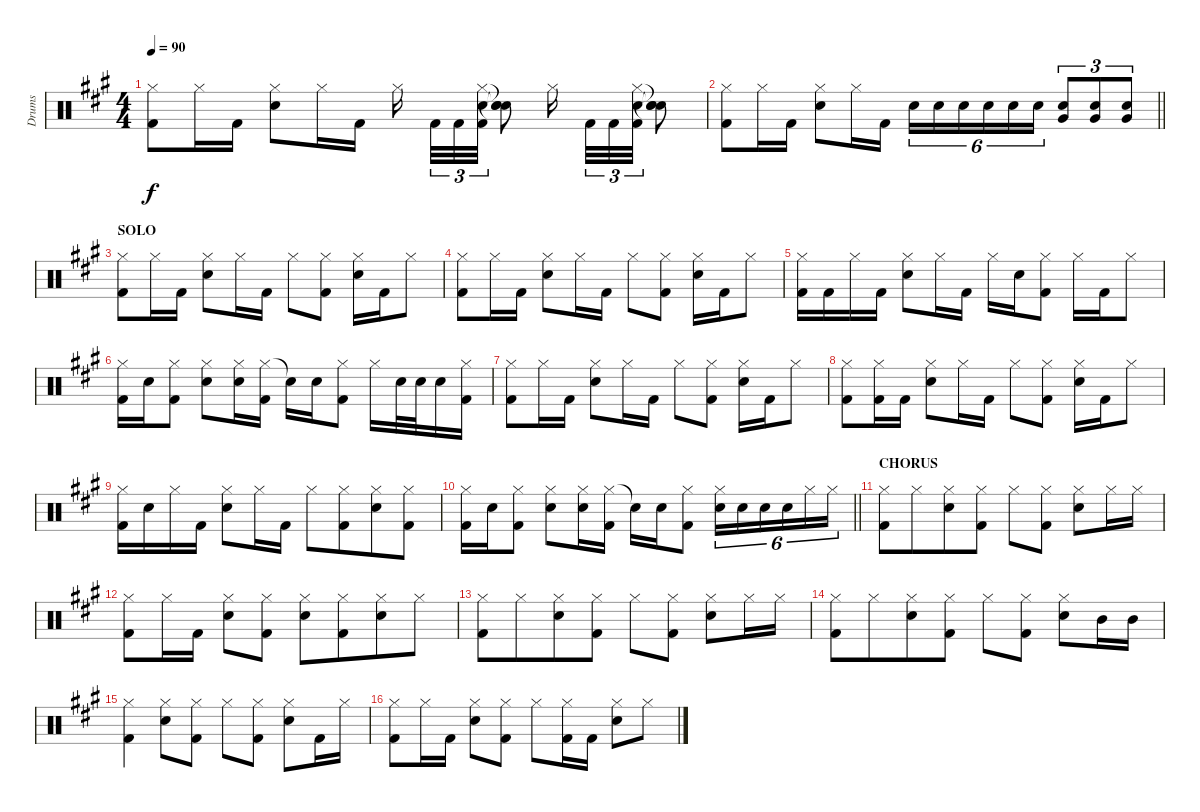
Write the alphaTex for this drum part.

\track ("Drums" "Drums") {instrument percussion}
\staff {score}
\articulation defaults
\ts (4 4)
\tempo 90
\clef neutral
\ks f#minor
("Hi-Hat (closed)" "Kick (hit) 2").8{dy f} "Hi-Hat (closed)".16 "Kick (hit) 2".16{beam split} ("Hi-Hat (closed)" "Electric Snare (hit)").8 "Hi-Hat (closed)".16 "Kick (hit) 2".16 "Hi-Hat (closed)".16{beam splitsecondary} "Kick (hit) 2".32{tu (3 2)} "Kick (hit) 2".32{tu (3 2)} ("Hi-Hat (closed)" "Electric Snare (hit)" "Kick (hit) 2").32{tu (3 2)} ("Snare (hit)"{t} "Snare (hit)"{t} "Snare (hit)"{t}).8 "Hi-Hat (closed)".16{beam splitsecondary} "Kick (hit) 2".32{tu (3 2)} "Kick (hit) 2".32{tu (3 2)} ("Hi-Hat (closed)" "Electric Snare (hit)" "Kick (hit) 2").32{tu (3 2)} ("Snare (hit)"{t} "Snare (hit)"{t} "Snare (hit)"{t}).8 |
\barLineRight lightlight
("Hi-Hat (closed)" "Kick (hit) 2").8 "Hi-Hat (closed)".16 "Kick (hit) 2".16{beam split} ("Hi-Hat (closed)" "Electric Snare (hit)").8 "Hi-Hat (closed)".16 "Kick (hit) 2".16 "Electric Snare (hit)".16{tu (6 4)} "Electric Snare (hit)".16{tu (6 4)} "Electric Snare (hit)".16{tu (6 4)} "Electric Snare (hit)".16{tu (6 4)} "Electric Snare (hit)".16{tu (6 4)} "Electric Snare (hit)".16{tu (6 4)} ("Very Low Tom (hit)" "Electric Snare (hit)").8{tu (3 2)} ("Very Low Tom (hit)" "Electric Snare (hit)").8{tu (3 2)} ("Very Low Tom (hit)" "Electric Snare (hit)").8{tu (3 2)} |
\section ("" "SOLO")
("Hi-Hat (closed)" "Kick (hit) 2").8 "Hi-Hat (closed)".16 "Kick (hit) 2".16{beam split} ("Hi-Hat (closed)" "Electric Snare (hit)").8 "Hi-Hat (closed)".16 "Kick (hit) 2".16 "Hi-Hat (closed)".8 ("Hi-Hat (closed)" "Kick (hit) 2").8 ("Hi-Hat (closed)" "Electric Snare (hit)").16 "Kick (hit) 2".16 "Hi-Hat (closed)".8 |
("Hi-Hat (closed)" "Kick (hit) 2").8 "Hi-Hat (closed)".16 "Kick (hit) 2".16{beam split} ("Hi-Hat (closed)" "Electric Snare (hit)").8 "Hi-Hat (closed)".16 "Kick (hit) 2".16 "Hi-Hat (closed)".8 ("Hi-Hat (closed)" "Kick (hit) 2").8 ("Hi-Hat (closed)" "Electric Snare (hit)").16 "Kick (hit) 2".16 "Hi-Hat (closed)".8 |
("Hi-Hat (closed)" "Kick (hit) 2").16 "Kick (hit) 2".16 "Hi-Hat (closed)".16 "Kick (hit) 2".16 ("Hi-Hat (closed)" "Electric Snare (hit)").8 "Hi-Hat (closed)".16 "Kick (hit) 2".16 "Hi-Hat (closed)".16 "Electric Snare (hit)".16 ("Hi-Hat (closed)" "Kick (hit) 2").8 "Hi-Hat (closed)".16 "Kick (hit) 2".16 "Hi-Hat (closed)".8 |
("Hi-Hat (closed)" "Kick (hit) 2").16 "Electric Snare (hit)".16 ("Hi-Hat (closed)" "Kick (hit) 2").8 ("Hi-Hat (closed)" "Electric Snare (hit)").8 ("Hi-Hat (closed)" "Electric Snare (hit)").16 ("Hi-Hat (closed)" "Kick (hit) 2").16 "Snare (hit)"{t}.16 "Electric Snare (hit)".16 ("Hi-Hat (closed)" "Kick (hit) 2").8 "Hi-Hat (closed)".16 "Electric Snare (hit)".32 "Electric Snare (hit)".32{beam splitsecondary} "Electric Snare (hit)".16 ("Hi-Hat (closed)" "Kick (hit) 2").16 |
("Hi-Hat (closed)" "Kick (hit) 2").8 "Hi-Hat (closed)".16 "Kick (hit) 2".16{beam split} ("Hi-Hat (closed)" "Electric Snare (hit)").8 "Hi-Hat (closed)".16 "Kick (hit) 2".16 "Hi-Hat (closed)".8 ("Hi-Hat (closed)" "Kick (hit) 2").8 ("Hi-Hat (closed)" "Electric Snare (hit)").16 "Kick (hit) 2".16 "Hi-Hat (closed)".8 |
("Hi-Hat (closed)" "Kick (hit) 2").8 ("Hi-Hat (closed)" "Kick (hit) 2").16 "Kick (hit) 2".16{beam split} ("Hi-Hat (closed)" "Electric Snare (hit)").8 "Hi-Hat (closed)".16 "Kick (hit) 2".16 "Hi-Hat (closed)".8 ("Hi-Hat (closed)" "Kick (hit) 2").8 ("Hi-Hat (closed)" "Electric Snare (hit)").16 "Kick (hit) 2".16 "Hi-Hat (closed)".8 |
("Hi-Hat (closed)" "Kick (hit) 2").16 "Electric Snare (hit)".16 "Hi-Hat (closed)".16 "Kick (hit) 2".16 ("Hi-Hat (closed)" "Electric Snare (hit)").8 "Hi-Hat (closed)".16 "Kick (hit) 2".16 "Hi-Hat (closed)".8 ("Hi-Hat (closed)" "Kick (hit) 2").8{beam merge} ("Hi-Hat (closed)" "Electric Snare (hit)").8 ("Hi-Hat (closed)" "Kick (hit) 2").8 |
\barLineRight lightlight
("Hi-Hat (closed)" "Kick (hit) 2").16 "Electric Snare (hit)".16 ("Hi-Hat (closed)" "Kick (hit) 2").8 ("Hi-Hat (closed)" "Electric Snare (hit)").8 ("Hi-Hat (closed)" "Electric Snare (hit)").16 ("Hi-Hat (closed)" "Kick (hit) 2").16 "Snare (hit)"{t}.16 "Electric Snare (hit)".16 ("Hi-Hat (closed)" "Kick (hit) 2").8 ("Hi-Hat (closed)" "Electric Snare (hit)").16{tu (6 4)} "Electric Snare (hit)".16{tu (6 4)} "Electric Snare (hit)".16{tu (6 4)} "Electric Snare (hit)".16{tu (6 4)} "Hi-Hat (closed)".16{tu (6 4)} "Hi-Hat (closed)".16{tu (6 4)} |
\section ("" "CHORUS")
("Hi-Hat (closed)" "Kick (hit) 2").8 "Hi-Hat (closed)".8{beam merge} ("Hi-Hat (closed)" "Electric Snare (hit)").8 ("Hi-Hat (closed)" "Kick (hit) 2").8 "Hi-Hat (closed)".8 ("Hi-Hat (closed)" "Kick (hit) 2").8 ("Hi-Hat (closed)" "Electric Snare (hit)").8 "Hi-Hat (closed)".16 "Hi-Hat (closed)".16 |
("Hi-Hat (closed)" "Kick (hit) 2").8 "Hi-Hat (closed)".16 "Kick (hit) 2".16{beam split} ("Hi-Hat (closed)" "Electric Snare (hit)").8 ("Hi-Hat (closed)" "Kick (hit) 2").8{beam split} ("Hi-Hat (closed)" "Electric Snare (hit)").8 ("Hi-Hat (closed)" "Kick (hit) 2").8{beam merge} ("Hi-Hat (closed)" "Electric Snare (hit)").8 "Hi-Hat (closed)".8 |
("Hi-Hat (closed)" "Kick (hit) 2").8 "Hi-Hat (closed)".8{beam merge} ("Hi-Hat (closed)" "Electric Snare (hit)").8 ("Hi-Hat (closed)" "Kick (hit) 2").8 "Hi-Hat (closed)".8 ("Hi-Hat (closed)" "Kick (hit) 2").8 ("Hi-Hat (closed)" "Electric Snare (hit)").8 "Hi-Hat (closed)".16 "Hi-Hat (closed)".16 |
("Hi-Hat (closed)" "Kick (hit) 2").8 "Hi-Hat (closed)".8{beam merge} ("Hi-Hat (closed)" "Electric Snare (hit)").8 ("Hi-Hat (closed)" "Kick (hit) 2").8 "Hi-Hat (closed)".8 ("Hi-Hat (closed)" "Kick (hit) 2").8 ("Hi-Hat (closed)" "Electric Snare (hit)").8 "Mid Tom (hit)".16 "Mid Tom (hit)".16 |
("Hi-Hat (closed)" "Kick (hit) 2").4 ("Hi-Hat (closed)" "Electric Snare (hit)").8 ("Hi-Hat (closed)" "Kick (hit) 2").8 "Hi-Hat (closed)".8 ("Hi-Hat (closed)" "Kick (hit) 2").8 ("Hi-Hat (closed)" "Electric Snare (hit)").8 "Kick (hit) 2".16 "Hi-Hat (closed)".16 |
("Hi-Hat (closed)" "Kick (hit) 2").8 "Hi-Hat (closed)".16 "Kick (hit) 2".16{beam split} ("Hi-Hat (closed)" "Electric Snare (hit)").8 ("Hi-Hat (closed)" "Kick (hit) 2").8{beam split} "Hi-Hat (closed)".8 ("Hi-Hat (closed)" "Kick (hit) 2").16 "Kick (hit) 2".16{beam split} ("Hi-Hat (closed)" "Electric Snare (hit)").8 "Hi-Hat (closed)".8
